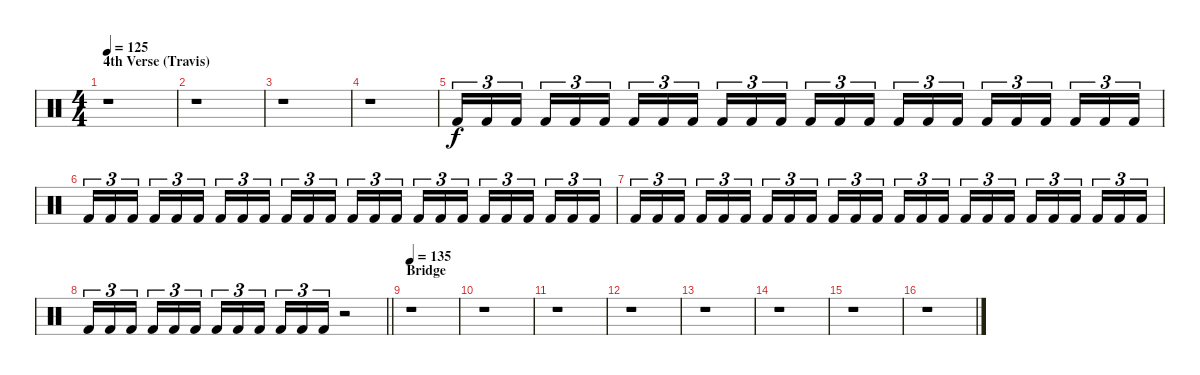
\track "" {instrument percussion}
\staff {score}
\articulation defaults
\ts (4 4)
\section ("" "4th Verse (Travis)")
\tempo 125
\clef neutral
\ks c
r.1{dy f} |
r.1 |
r.1 |
r.1 |
"Kick (hit) 2".16{tu (3 2)} "Kick (hit) 2".16{tu (3 2)} "Kick (hit) 2".16{tu (3 2) beam splitsecondary} "Kick (hit) 2".16{tu (3 2)} "Kick (hit) 2".16{tu (3 2)} "Kick (hit) 2".16{tu (3 2)} "Kick (hit) 2".16{tu (3 2)} "Kick (hit) 2".16{tu (3 2)} "Kick (hit) 2".16{tu (3 2) beam splitsecondary} "Kick (hit) 2".16{tu (3 2)} "Kick (hit) 2".16{tu (3 2)} "Kick (hit) 2".16{tu (3 2)} "Kick (hit) 2".16{tu (3 2)} "Kick (hit) 2".16{tu (3 2)} "Kick (hit) 2".16{tu (3 2) beam splitsecondary} "Kick (hit) 2".16{tu (3 2)} "Kick (hit) 2".16{tu (3 2)} "Kick (hit) 2".16{tu (3 2)} "Kick (hit) 2".16{tu (3 2)} "Kick (hit) 2".16{tu (3 2)} "Kick (hit) 2".16{tu (3 2) beam splitsecondary} "Kick (hit) 2".16{tu (3 2)} "Kick (hit) 2".16{tu (3 2)} "Kick (hit) 2".16{tu (3 2)} |
"Kick (hit) 2".16{tu (3 2)} "Kick (hit) 2".16{tu (3 2)} "Kick (hit) 2".16{tu (3 2) beam splitsecondary} "Kick (hit) 2".16{tu (3 2)} "Kick (hit) 2".16{tu (3 2)} "Kick (hit) 2".16{tu (3 2)} "Kick (hit) 2".16{tu (3 2)} "Kick (hit) 2".16{tu (3 2)} "Kick (hit) 2".16{tu (3 2) beam splitsecondary} "Kick (hit) 2".16{tu (3 2)} "Kick (hit) 2".16{tu (3 2)} "Kick (hit) 2".16{tu (3 2)} "Kick (hit) 2".16{tu (3 2)} "Kick (hit) 2".16{tu (3 2)} "Kick (hit) 2".16{tu (3 2) beam splitsecondary} "Kick (hit) 2".16{tu (3 2)} "Kick (hit) 2".16{tu (3 2)} "Kick (hit) 2".16{tu (3 2)} "Kick (hit) 2".16{tu (3 2)} "Kick (hit) 2".16{tu (3 2)} "Kick (hit) 2".16{tu (3 2) beam splitsecondary} "Kick (hit) 2".16{tu (3 2)} "Kick (hit) 2".16{tu (3 2)} "Kick (hit) 2".16{tu (3 2)} |
"Kick (hit) 2".16{tu (3 2)} "Kick (hit) 2".16{tu (3 2)} "Kick (hit) 2".16{tu (3 2) beam splitsecondary} "Kick (hit) 2".16{tu (3 2)} "Kick (hit) 2".16{tu (3 2)} "Kick (hit) 2".16{tu (3 2)} "Kick (hit) 2".16{tu (3 2)} "Kick (hit) 2".16{tu (3 2)} "Kick (hit) 2".16{tu (3 2) beam splitsecondary} "Kick (hit) 2".16{tu (3 2)} "Kick (hit) 2".16{tu (3 2)} "Kick (hit) 2".16{tu (3 2)} "Kick (hit) 2".16{tu (3 2)} "Kick (hit) 2".16{tu (3 2)} "Kick (hit) 2".16{tu (3 2) beam splitsecondary} "Kick (hit) 2".16{tu (3 2)} "Kick (hit) 2".16{tu (3 2)} "Kick (hit) 2".16{tu (3 2)} "Kick (hit) 2".16{tu (3 2)} "Kick (hit) 2".16{tu (3 2)} "Kick (hit) 2".16{tu (3 2) beam splitsecondary} "Kick (hit) 2".16{tu (3 2)} "Kick (hit) 2".16{tu (3 2)} "Kick (hit) 2".16{tu (3 2)} |
\barLineRight lightlight "Kick (hit) 2".16{tu (3 2)} "Kick (hit) 2".16{tu (3 2)} "Kick (hit) 2".16{tu (3 2) beam splitsecondary} "Kick (hit) 2".16{tu (3 2)} "Kick (hit) 2".16{tu (3 2)} "Kick (hit) 2".16{tu (3 2)} "Kick (hit) 2".16{tu (3 2)} "Kick (hit) 2".16{tu (3 2)} "Kick (hit) 2".16{tu (3 2) beam splitsecondary} "Kick (hit) 2".16{tu (3 2)} "Kick (hit) 2".16{tu (3 2)} "Kick (hit) 2".16{tu (3 2)}
r.2 |
\section ("" "Bridge")
\tempo 135
r.1 |
r.1 |
r.1 |
r.1 |
r.1 |
r.1 |
r.1 |
r.1
